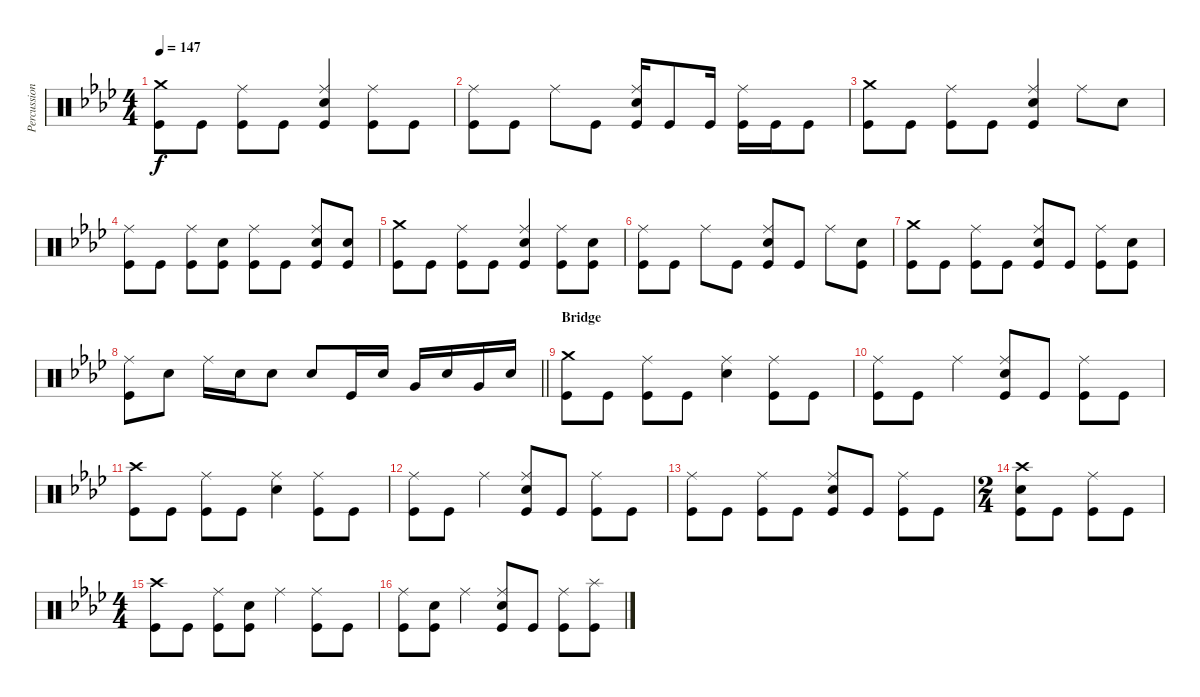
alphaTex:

\track ("Percussion" "Percussion") {instrument percussion}
\staff {score}
\articulation defaults
\ts (4 4)
\tempo 147
\clef neutral
\ks ab
("Crash medium (hit)" "Kick (hit)").8{dy f} "Kick (hit)".8 ("Ride (middle)" "Kick (hit)").8 "Kick (hit)".8 ("Ride (middle)" "Electric Snare (hit)" "Kick (hit)").4 ("Ride (middle)" "Kick (hit)").8 "Kick (hit)".8 |
("Ride (middle)" "Kick (hit)").8 "Kick (hit)".8 "Ride (middle)".8 "Kick (hit)".8 ("Ride (middle)" "Electric Snare (hit)" "Kick (hit)").16 "Kick (hit)".8 "Kick (hit)".16 ("Ride (middle)" "Kick (hit)").16 "Kick (hit)".16 "Kick (hit)".8 |
("Crash medium (hit)" "Kick (hit)").8 "Kick (hit)".8 ("Ride (middle)" "Kick (hit)").8 "Kick (hit)".8 ("Ride (middle)" "Electric Snare (hit)" "Kick (hit)").4 "Ride (middle)".8 "Electric Snare (hit)".8 |
("Ride (middle)" "Kick (hit)").8 "Kick (hit)".8 ("Ride (middle)" "Kick (hit)").8 ("Electric Snare (hit)" "Kick (hit)").8 ("Ride (middle)" "Kick (hit)").8 "Kick (hit)".8 ("Ride (middle)" "Electric Snare (hit)" "Kick (hit)").8 ("Electric Snare (hit)" "Kick (hit)").8 |
("Crash medium (hit)" "Kick (hit)").8 "Kick (hit)".8 ("Ride (middle)" "Kick (hit)").8 "Kick (hit)".8 ("Ride (middle)" "Electric Snare (hit)" "Kick (hit)").4 ("Ride (middle)" "Kick (hit)").8 ("Electric Snare (hit)" "Kick (hit)").8 |
("Ride (middle)" "Kick (hit)").8 "Kick (hit)".8 "Ride (middle)".8 "Kick (hit)".8 ("Ride (middle)" "Electric Snare (hit)" "Kick (hit)").8 "Kick (hit)".8 "Ride (middle)".8 ("Electric Snare (hit)" "Kick (hit)").8 |
("Crash medium (hit)" "Kick (hit)").8 "Kick (hit)".8 ("Ride (middle)" "Kick (hit)").8 "Kick (hit)".8 ("Ride (middle)" "Electric Snare (hit)" "Kick (hit)").8 "Kick (hit)".8 ("Ride (middle)" "Kick (hit)").8 ("Electric Snare (hit)" "Kick (hit)").8 |
\barLineRight lightlight
("Ride (middle)" "Kick (hit)").8 "Electric Snare (hit)".8 "Ride (middle)".16 "Electric Snare (hit)".16 "Electric Snare (hit)".8 "Electric Snare (hit)".8 "Kick (hit)".16 "Electric Snare (hit)".16 "Very Low Tom (hit)".16 "Electric Snare (hit)".16 "Very Low Tom (hit)".16 "Electric Snare (hit)".16 |
\section ("" "Bridge")
("Crash medium (hit)" "Kick (hit)").8 "Kick (hit)".8 ("Ride (middle)" "Kick (hit)").8 "Kick (hit)".8 ("Ride (middle)" "Electric Snare (hit)").4 ("Ride (middle)" "Kick (hit)").8 "Kick (hit)".8 |
("Ride (middle)" "Kick (hit)").8 "Kick (hit)".8 "Ride (middle)".4 ("Ride (middle)" "Electric Snare (hit)" "Kick (hit)").8 "Kick (hit)".8 ("Ride (middle)" "Kick (hit)").8 "Kick (hit)".8 |
("Crash high (hit)" "Kick (hit)").8 "Kick (hit)".8 ("Ride (middle)" "Kick (hit)").8 "Kick (hit)".8 ("Ride (middle)" "Electric Snare (hit)").4 ("Ride (middle)" "Kick (hit)").8 "Kick (hit)".8 |
("Ride (middle)" "Kick (hit)").8 "Kick (hit)".8 "Ride (middle)".4 ("Ride (middle)" "Electric Snare (hit)" "Kick (hit)").8 "Kick (hit)".8 ("Ride (middle)" "Kick (hit)").8 "Kick (hit)".8 |
("Ride (middle)" "Kick (hit)").8 "Kick (hit)".8 ("Ride (middle)" "Kick (hit)").8 "Kick (hit)".8 ("Ride (middle)" "Electric Snare (hit)" "Kick (hit)").8 "Kick (hit)".8 ("Ride (middle)" "Kick (hit)").8 "Kick (hit)".8 |
\ts (2 4)
("Crash high (hit)" "Electric Snare (hit)" "Kick (hit)").8 "Kick (hit)".8 ("Ride (middle)" "Kick (hit)").8 "Kick (hit)".8 |
\ts (4 4)
("Crash high (hit)" "Kick (hit)").8 "Kick (hit)".8 ("Ride (middle)" "Kick (hit)").8 ("Electric Snare (hit)" "Kick (hit)").8 "Ride (middle)".4 ("Ride (middle)" "Kick (hit)").8 "Kick (hit)".8 |
("Ride (middle)" "Kick (hit)").8 ("Electric Snare (hit)" "Kick (hit)").8 "Ride (middle)".4 ("Ride (middle)" "Electric Snare (hit)" "Kick (hit)").8 "Kick (hit)".8 ("Ride (middle)" "Kick (hit)").8 ("Splash (hit)" "Kick (hit)").8
